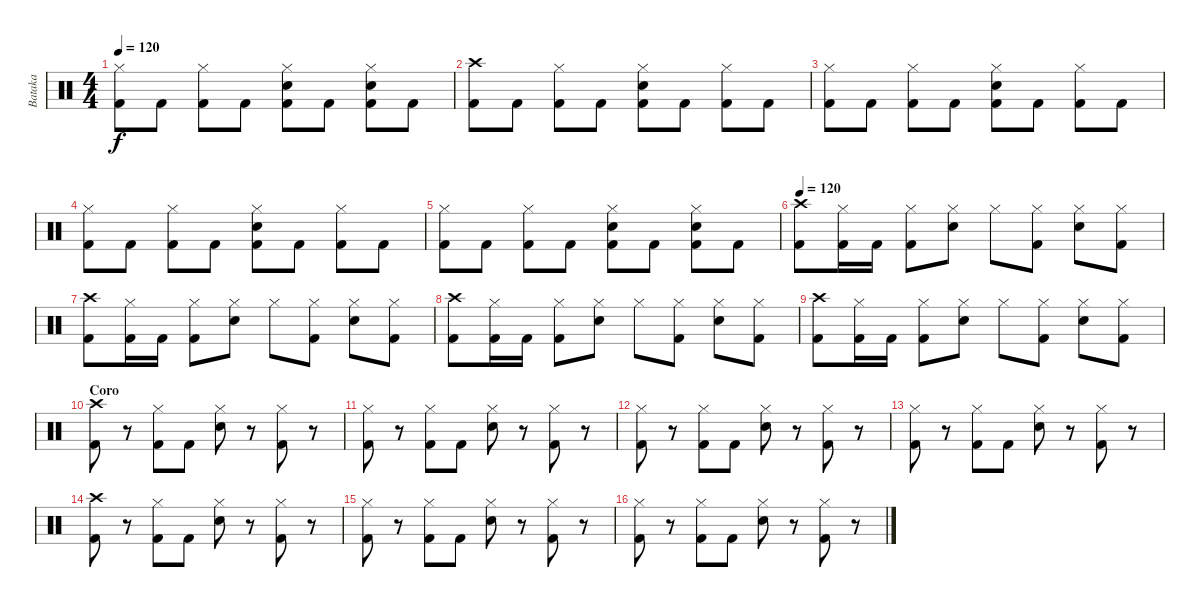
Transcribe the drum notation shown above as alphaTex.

\track ("Bataka" "Bataka") {instrument percussion}
\staff {score}
\articulation defaults
\ts (4 4)
\tempo 120
\clef neutral
\ks c
("Hi-Hat (closed)" "Kick (hit) 2").8{dy f} "Kick (hit) 2".8 ("Hi-Hat (closed)" "Kick (hit) 2").8 "Kick (hit) 2".8 ("Hi-Hat (closed)" "Snare (hit) 2" "Kick (hit) 2").8 "Kick (hit) 2".8 ("Hi-Hat (closed)" "Snare (hit) 2" "Kick (hit) 2").8 "Kick (hit) 2".8 |
("Crash high (hit)" "Kick (hit) 2").8 "Kick (hit) 2".8 ("Hi-Hat (closed)" "Kick (hit) 2").8 "Kick (hit) 2".8 ("Hi-Hat (closed)" "Snare (hit) 2" "Kick (hit) 2").8 "Kick (hit) 2".8 ("Hi-Hat (closed)" "Kick (hit) 2").8 "Kick (hit) 2".8 |
("Hi-Hat (closed)" "Kick (hit) 2").8 "Kick (hit) 2".8 ("Hi-Hat (closed)" "Kick (hit) 2").8 "Kick (hit) 2".8 ("Hi-Hat (closed)" "Snare (hit) 2" "Kick (hit) 2").8 "Kick (hit) 2".8 ("Hi-Hat (closed)" "Kick (hit) 2").8 "Kick (hit) 2".8 |
("Hi-Hat (closed)" "Kick (hit) 2").8 "Kick (hit) 2".8 ("Hi-Hat (closed)" "Kick (hit) 2").8 "Kick (hit) 2".8 ("Hi-Hat (closed)" "Snare (hit) 2" "Kick (hit) 2").8 "Kick (hit) 2".8 ("Hi-Hat (closed)" "Kick (hit) 2").8 "Kick (hit) 2".8 |
("Hi-Hat (closed)" "Kick (hit) 2").8 "Kick (hit) 2".8 ("Hi-Hat (closed)" "Kick (hit) 2").8 "Kick (hit) 2".8 ("Hi-Hat (closed)" "Snare (hit) 2" "Kick (hit) 2").8 "Kick (hit) 2".8 ("Hi-Hat (closed)" "Snare (hit) 2" "Kick (hit) 2").8 "Kick (hit) 2".8 |
\tempo 120
("Crash high (hit)" "Kick (hit) 2").8 ("Hi-Hat (closed)" "Kick (hit) 2").16 "Kick (hit) 2".16 ("Hi-Hat (closed)" "Kick (hit) 2").8 ("Hi-Hat (closed)" "Snare (hit) 2").8 "Hi-Hat (closed)".8 ("Hi-Hat (closed)" "Kick (hit) 2").8 ("Hi-Hat (closed)" "Snare (hit) 2").8 ("Hi-Hat (closed)" "Kick (hit) 2").8 |
("Crash high (hit)" "Kick (hit) 2").8 ("Hi-Hat (closed)" "Kick (hit) 2").16 "Kick (hit) 2".16 ("Hi-Hat (closed)" "Kick (hit) 2").8 ("Hi-Hat (closed)" "Snare (hit) 2").8 "Hi-Hat (closed)".8 ("Hi-Hat (closed)" "Kick (hit) 2").8 ("Hi-Hat (closed)" "Snare (hit) 2").8 ("Hi-Hat (closed)" "Kick (hit) 2").8 |
("Crash high (hit)" "Kick (hit) 2").8 ("Hi-Hat (closed)" "Kick (hit) 2").16 "Kick (hit) 2".16 ("Hi-Hat (closed)" "Kick (hit) 2").8 ("Hi-Hat (closed)" "Snare (hit) 2").8 "Hi-Hat (closed)".8 ("Hi-Hat (closed)" "Kick (hit) 2").8 ("Hi-Hat (closed)" "Snare (hit) 2").8 ("Hi-Hat (closed)" "Kick (hit) 2").8 |
("Crash high (hit)" "Kick (hit) 2").8 ("Hi-Hat (closed)" "Kick (hit) 2").16 "Kick (hit) 2".16 ("Hi-Hat (closed)" "Kick (hit) 2").8 ("Hi-Hat (closed)" "Snare (hit) 2").8 "Hi-Hat (closed)".8 ("Hi-Hat (closed)" "Kick (hit) 2").8 ("Hi-Hat (closed)" "Snare (hit) 2").8 ("Hi-Hat (closed)" "Kick (hit) 2").8 |
\section ("" "Coro")
("Crash high (hit)" "Kick (hit) 2").8 r.8 ("Hi-Hat (closed)" "Kick (hit) 2").8 "Kick (hit) 2".8 ("Hi-Hat (closed)" "Snare (hit) 2").8 r.8 ("Hi-Hat (closed)" "Kick (hit) 2").8 r.8 |
("Hi-Hat (closed)" "Kick (hit) 2").8 r.8 ("Hi-Hat (closed)" "Kick (hit) 2").8 "Kick (hit) 2".8 ("Hi-Hat (closed)" "Snare (hit) 2").8 r.8 ("Hi-Hat (closed)" "Kick (hit) 2").8 r.8 |
("Hi-Hat (closed)" "Kick (hit) 2").8 r.8 ("Hi-Hat (closed)" "Kick (hit) 2").8 "Kick (hit) 2".8 ("Hi-Hat (closed)" "Snare (hit) 2").8 r.8 ("Hi-Hat (closed)" "Kick (hit) 2").8 r.8 |
("Hi-Hat (closed)" "Kick (hit) 2").8 r.8 ("Hi-Hat (closed)" "Kick (hit) 2").8 "Kick (hit) 2".8 ("Hi-Hat (closed)" "Snare (hit) 2").8 r.8 ("Hi-Hat (closed)" "Kick (hit) 2").8 r.8 |
("Crash high (hit)" "Kick (hit) 2").8 r.8 ("Hi-Hat (closed)" "Kick (hit) 2").8 "Kick (hit) 2".8 ("Hi-Hat (closed)" "Snare (hit) 2").8 r.8 ("Hi-Hat (closed)" "Kick (hit) 2").8 r.8 |
("Hi-Hat (closed)" "Kick (hit) 2").8 r.8 ("Hi-Hat (closed)" "Kick (hit) 2").8 "Kick (hit) 2".8 ("Hi-Hat (closed)" "Snare (hit) 2").8 r.8 ("Hi-Hat (closed)" "Kick (hit) 2").8 r.8 |
("Hi-Hat (closed)" "Kick (hit) 2").8 r.8 ("Hi-Hat (closed)" "Kick (hit) 2").8 "Kick (hit) 2".8 ("Hi-Hat (closed)" "Snare (hit) 2").8 r.8 ("Hi-Hat (closed)" "Kick (hit) 2").8 r.8
